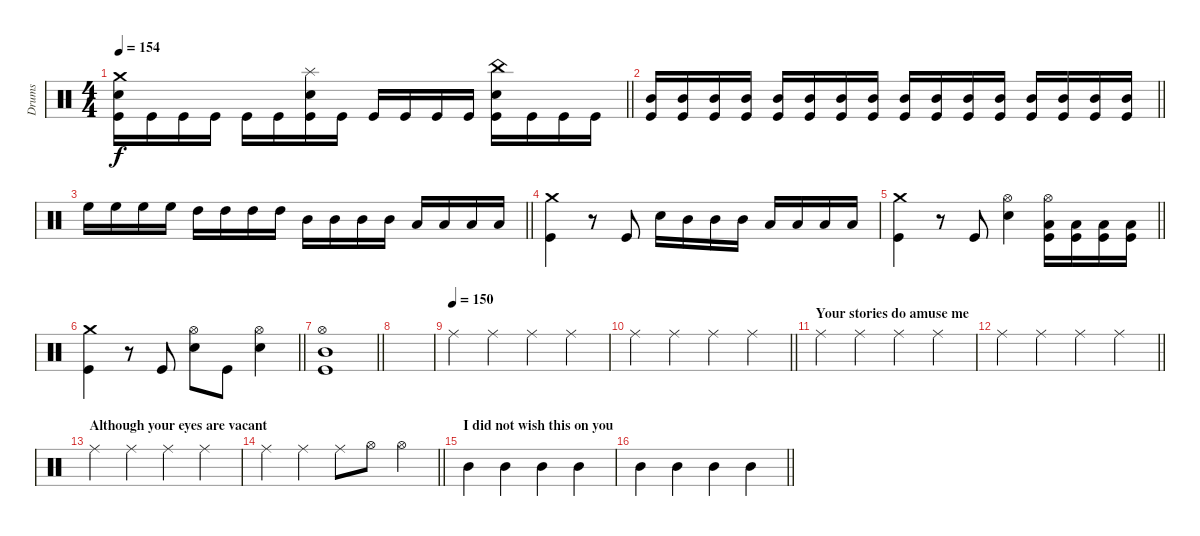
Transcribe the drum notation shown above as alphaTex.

\track ("Drums" "Drums") {instrument percussion}
\staff {score}
\articulation defaults
\ts (4 4)
\tempo 154
\clef neutral
\barLineRight lightlight
\ks c
("Crash medium (hit)" "Snare (hit) 2" "Kick (hit)").16{dy f} "Kick (hit)".16 "Kick (hit)".16 "Kick (hit)".16 "Kick (hit)".16 "Kick (hit)".16 ("Splash (hit)" "Snare (hit) 2" "Kick (hit)").16 "Kick (hit)".16 "Kick (hit)".16 "Kick (hit)".16 "Kick (hit)".16 "Kick (hit)".16 ("China (hit)" "Snare (hit) 2" "Kick (hit)").16 "Kick (hit)".16 "Kick (hit)".16 "Kick (hit)".16 |
\barLineRight lightlight
("Mid Tom (hit)" "Kick (hit)").16 ("Mid Tom (hit)" "Kick (hit)").16 ("Mid Tom (hit)" "Kick (hit)").16 ("Mid Tom (hit)" "Kick (hit)").16 ("Mid Tom (hit)" "Kick (hit)").16 ("Mid Tom (hit)" "Kick (hit)").16 ("Mid Tom (hit)" "Kick (hit)").16 ("Mid Tom (hit)" "Kick (hit)").16 ("Mid Tom (hit)" "Kick (hit)").16 ("Mid Tom (hit)" "Kick (hit)").16 ("Mid Tom (hit)" "Kick (hit)").16 ("Mid Tom (hit)" "Kick (hit)").16 ("Mid Tom (hit)" "Kick (hit)").16 ("Mid Tom (hit)" "Kick (hit)").16 ("Mid Tom (hit)" "Kick (hit)").16 ("Mid Tom (hit)" "Kick (hit)").16 |
\barLineRight lightlight "High Floor Tom (hit)".16 "High Floor Tom (hit)".16 "High Floor Tom (hit)".16 "High Floor Tom (hit)".16 "High Tom (hit)".16 "High Tom (hit)".16 "High Tom (hit)".16 "High Tom (hit)".16 "Mid Tom (hit)".16 "Mid Tom (hit)".16 "Mid Tom (hit)".16 "Mid Tom (hit)".16 "Low Tom (hit)".16 "Low Tom (hit)".16 "Low Tom (hit)".16 "Low Tom (hit)".16
|
("Crash medium (hit)" "Kick (hit)").4 r.8 "Kick (hit)".8 "Snare (hit) 2".16 "Mid Tom (hit)".16 "Mid Tom (hit)".16 "Mid Tom (hit)".16 "Low Tom (hit)".16 "Low Tom (hit)".16 "Low Tom (hit)".16 "Low Tom (hit)".16 |
\barLineRight lightlight
("Crash medium (hit)" "Kick (hit)").4 r.8 "Kick (hit)".8 ("Hi-Hat (open)" "Snare (hit) 2").4 ("Hi-Hat (open)" "Low Tom (hit)" "Kick (hit)").16 ("Low Tom (hit)" "Kick (hit)").16 ("Low Tom (hit)" "Kick (hit)").16 ("Low Tom (hit)" "Kick (hit)").16 |
\barLineRight lightlight
("Crash medium (hit)" "Kick (hit)").4 r.8 "Kick (hit)".8 ("Hi-Hat (open)" "Snare (hit) 2").8 "Kick (hit)".8 ("Hi-Hat (open)" "Snare (hit) 2").4 |
\barLineRight lightlight
("Hi-Hat (open)" "Mid Tom (hit)" "Kick (hit)").1 |
|
\tempo (150)
"Ride (middle)".4 "Ride (middle)".4 "Ride (middle)".4 "Ride (middle)".4 |
\barLineRight lightlight "Ride (middle)".4 "Ride (middle)".4 "Ride (middle)".4 "Ride (middle)".4
|
\section ("" "Your stories do amuse me")
"Ride (middle)".4 "Ride (middle)".4 "Ride (middle)".4 "Ride (middle)".4 |
\barLineRight lightlight "Ride (middle)".4 "Ride (middle)".4 "Ride (middle)".4 "Ride (middle)".4
|
\section ("" "Although your eyes are vacant")
"Ride (middle)".4 "Ride (middle)".4 "Ride (middle)".4 "Ride (middle)".4 |
\barLineRight lightlight "Ride (middle)".4 "Ride (middle)".4 "Ride (middle)".8 "Hi-Hat (open)".8 "Hi-Hat (open)".4
|
\section ("" "I did not wish this on you")
"Mid Tom (hit)".4 "Mid Tom (hit)".4 "Mid Tom (hit)".4 "Mid Tom (hit)".4 |
\barLineRight lightlight "Mid Tom (hit)".4 "Mid Tom (hit)".4 "Mid Tom (hit)".4 "Mid Tom (hit)".4
